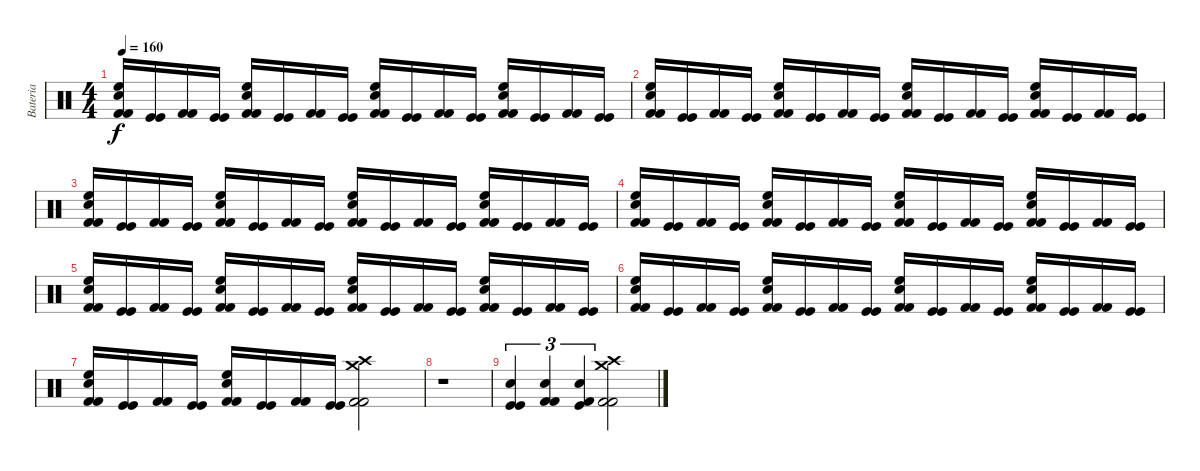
\track ("Bateria" "Bateria") {instrument percussion}
\staff {score}
\articulation defaults
\ts (4 4)
\tempo 160
\clef neutral
\ks c
("Kick (hit) 2" "Kick (hit) 2" "Snare (hit) 2" "High Floor Tom (hit)").16{dy f} ("Kick (hit)" "Kick (hit)").16 ("Kick (hit) 2" "Kick (hit) 2").16 ("Kick (hit)" "Kick (hit)").16 ("Kick (hit) 2" "Kick (hit) 2" "Snare (hit) 2" "High Floor Tom (hit)").16 ("Kick (hit)" "Kick (hit)").16 ("Kick (hit) 2" "Kick (hit) 2").16 ("Kick (hit)" "Kick (hit)").16 ("Kick (hit) 2" "Kick (hit) 2" "Snare (hit) 2" "High Floor Tom (hit)").16 ("Kick (hit)" "Kick (hit)").16 ("Kick (hit) 2" "Kick (hit) 2").16 ("Kick (hit)" "Kick (hit)").16 ("Kick (hit) 2" "Kick (hit) 2" "Snare (hit) 2" "High Floor Tom (hit)").16 ("Kick (hit)" "Kick (hit)").16 ("Kick (hit) 2" "Kick (hit) 2").16 ("Kick (hit)" "Kick (hit)").16 |
("Kick (hit) 2" "Kick (hit) 2" "Snare (hit) 2" "High Floor Tom (hit)").16 ("Kick (hit)" "Kick (hit)").16 ("Kick (hit) 2" "Kick (hit) 2").16 ("Kick (hit)" "Kick (hit)").16 ("Kick (hit) 2" "Kick (hit) 2" "Snare (hit) 2" "High Floor Tom (hit)").16 ("Kick (hit)" "Kick (hit)").16 ("Kick (hit) 2" "Kick (hit) 2").16 ("Kick (hit)" "Kick (hit)").16 ("Kick (hit) 2" "Kick (hit) 2" "Snare (hit) 2" "High Floor Tom (hit)").16 ("Kick (hit)" "Kick (hit)").16 ("Kick (hit) 2" "Kick (hit) 2").16 ("Kick (hit)" "Kick (hit)").16 ("Kick (hit) 2" "Kick (hit) 2" "Snare (hit) 2" "High Floor Tom (hit)").16 ("Kick (hit)" "Kick (hit)").16 ("Kick (hit) 2" "Kick (hit) 2").16 ("Kick (hit)" "Kick (hit)").16 |
("Kick (hit) 2" "Kick (hit) 2" "Snare (hit) 2" "High Floor Tom (hit)").16 ("Kick (hit)" "Kick (hit)").16 ("Kick (hit) 2" "Kick (hit) 2").16 ("Kick (hit)" "Kick (hit)").16 ("Kick (hit) 2" "Kick (hit) 2" "Snare (hit) 2" "High Floor Tom (hit)").16 ("Kick (hit)" "Kick (hit)").16 ("Kick (hit) 2" "Kick (hit) 2").16 ("Kick (hit)" "Kick (hit)").16 ("Kick (hit) 2" "Kick (hit) 2" "Snare (hit) 2" "High Floor Tom (hit)").16 ("Kick (hit)" "Kick (hit)").16 ("Kick (hit) 2" "Kick (hit) 2").16 ("Kick (hit)" "Kick (hit)").16 ("Kick (hit) 2" "Kick (hit) 2" "Snare (hit) 2" "High Floor Tom (hit)").16 ("Kick (hit)" "Kick (hit)").16 ("Kick (hit) 2" "Kick (hit) 2").16 ("Kick (hit)" "Kick (hit)").16 |
("Kick (hit) 2" "Kick (hit) 2" "Snare (hit) 2" "High Floor Tom (hit)").16 ("Kick (hit)" "Kick (hit)").16 ("Kick (hit) 2" "Kick (hit) 2").16 ("Kick (hit)" "Kick (hit)").16 ("Kick (hit) 2" "Kick (hit) 2" "Snare (hit) 2" "High Floor Tom (hit)").16 ("Kick (hit)" "Kick (hit)").16 ("Kick (hit) 2" "Kick (hit) 2").16 ("Kick (hit)" "Kick (hit)").16 ("Kick (hit) 2" "Kick (hit) 2" "Snare (hit) 2" "High Floor Tom (hit)").16 ("Kick (hit)" "Kick (hit)").16 ("Kick (hit) 2" "Kick (hit) 2").16 ("Kick (hit)" "Kick (hit)").16 ("Kick (hit) 2" "Kick (hit) 2" "Snare (hit) 2" "High Floor Tom (hit)").16 ("Kick (hit)" "Kick (hit)").16 ("Kick (hit) 2" "Kick (hit) 2").16 ("Kick (hit)" "Kick (hit)").16 |
("Kick (hit) 2" "Kick (hit) 2" "Snare (hit) 2" "High Floor Tom (hit)").16 ("Kick (hit)" "Kick (hit)").16 ("Kick (hit) 2" "Kick (hit) 2").16 ("Kick (hit)" "Kick (hit)").16 ("Kick (hit) 2" "Kick (hit) 2" "Snare (hit) 2" "High Floor Tom (hit)").16 ("Kick (hit)" "Kick (hit)").16 ("Kick (hit) 2" "Kick (hit) 2").16 ("Kick (hit)" "Kick (hit)").16 ("Kick (hit) 2" "Kick (hit) 2" "Snare (hit) 2" "High Floor Tom (hit)").16 ("Kick (hit)" "Kick (hit)").16 ("Kick (hit) 2" "Kick (hit) 2").16 ("Kick (hit)" "Kick (hit)").16 ("Kick (hit) 2" "Kick (hit) 2" "Snare (hit) 2" "High Floor Tom (hit)").16 ("Kick (hit)" "Kick (hit)").16 ("Kick (hit) 2" "Kick (hit) 2").16 ("Kick (hit)" "Kick (hit)").16 |
("Kick (hit) 2" "Kick (hit) 2" "Snare (hit) 2" "High Floor Tom (hit)").16 ("Kick (hit)" "Kick (hit)").16 ("Kick (hit) 2" "Kick (hit) 2").16 ("Kick (hit)" "Kick (hit)").16 ("Kick (hit) 2" "Kick (hit) 2" "Snare (hit) 2" "High Floor Tom (hit)").16 ("Kick (hit)" "Kick (hit)").16 ("Kick (hit) 2" "Kick (hit) 2").16 ("Kick (hit)" "Kick (hit)").16 ("Kick (hit) 2" "Kick (hit) 2" "Snare (hit) 2" "High Floor Tom (hit)").16 ("Kick (hit)" "Kick (hit)").16 ("Kick (hit) 2" "Kick (hit) 2").16 ("Kick (hit)" "Kick (hit)").16 ("Kick (hit) 2" "Kick (hit) 2" "Snare (hit) 2" "High Floor Tom (hit)").16 ("Kick (hit)" "Kick (hit)").16 ("Kick (hit) 2" "Kick (hit) 2").16 ("Kick (hit)" "Kick (hit)").16 |
("Kick (hit) 2" "Kick (hit) 2" "Snare (hit) 2" "High Floor Tom (hit)").16 ("Kick (hit)" "Kick (hit)").16 ("Kick (hit) 2" "Kick (hit) 2").16 ("Kick (hit)" "Kick (hit)").16 ("Kick (hit) 2" "Kick (hit) 2" "Snare (hit) 2" "High Floor Tom (hit)").16 ("Kick (hit)" "Kick (hit)").16 ("Kick (hit) 2" "Kick (hit) 2").16 ("Kick (hit)" "Kick (hit)").16 ("Kick (hit) 2" "Kick (hit) 2" "Crash high (hit)" "Crash medium (hit)").2 |
r.1 |
("Kick (hit)" "Kick (hit)" "Snare (hit) 2").4{tu (3 2)} ("Kick (hit) 2" "Kick (hit) 2" "Snare (hit) 2").4{tu (3 2)} ("Kick (hit) 2" "Kick (hit)" "Snare (hit) 2").4{tu (3 2)} ("Kick (hit) 2" "Kick (hit) 2" "Crash high (hit)" "Crash medium (hit)").2
